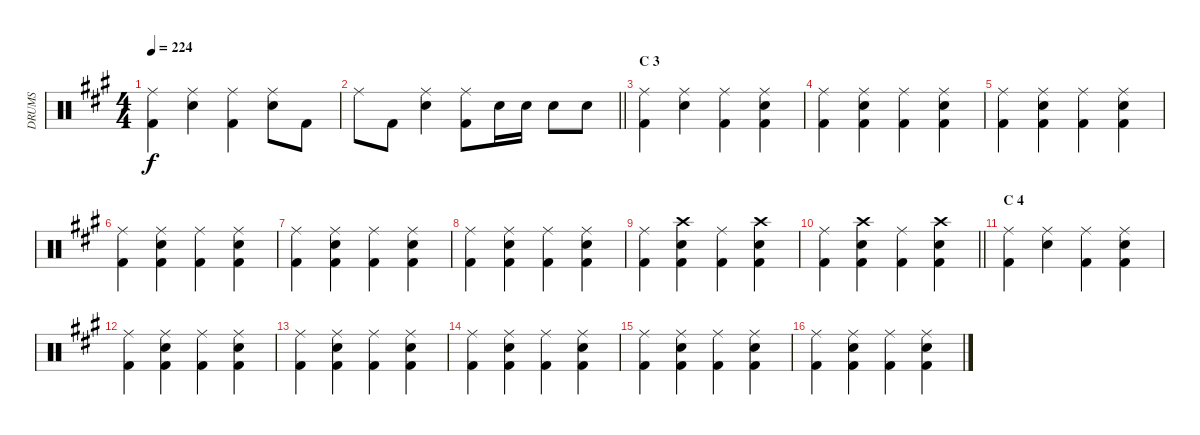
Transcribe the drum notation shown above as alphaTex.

\track ("DRUMS" "DRUMS") {instrument percussion}
\staff {score}
\articulation defaults
\ts (4 4)
\tempo 224
\clef neutral
\ks a
("Ride (middle)" "Kick (hit) 2").4{dy f} ("Ride (middle)" "Snare (hit) 2").4 ("Ride (middle)" "Kick (hit) 2").4 ("Ride (middle)" "Snare (hit) 2").8 "Kick (hit) 2".8 |
\barLineRight lightlight "Ride (middle)".8 "Kick (hit) 2".8
("Ride (middle)" "Snare (hit) 2").4 ("Ride (middle)" "Kick (hit) 2").8 "Snare (hit) 2".16 "Snare (hit) 2".16 "Snare (hit) 2".8 "Snare (hit) 2".8 |
\section ("" "C 3")
("Ride (middle)" "Kick (hit) 2").4 ("Ride (middle)" "Snare (hit) 2").4 ("Ride (middle)" "Kick (hit) 2").4 ("Ride (middle)" "Snare (hit) 2" "Kick (hit) 2").4 |
("Ride (middle)" "Kick (hit) 2").4 ("Ride (middle)" "Snare (hit) 2" "Kick (hit) 2").4 ("Ride (middle)" "Kick (hit) 2").4 ("Ride (middle)" "Snare (hit) 2" "Kick (hit) 2").4 |
("Ride (middle)" "Kick (hit) 2").4 ("Ride (middle)" "Snare (hit) 2" "Kick (hit) 2").4 ("Ride (middle)" "Kick (hit) 2").4 ("Ride (middle)" "Snare (hit) 2" "Kick (hit) 2").4 |
("Ride (middle)" "Kick (hit) 2").4 ("Ride (middle)" "Snare (hit) 2" "Kick (hit) 2").4 ("Ride (middle)" "Kick (hit) 2").4 ("Ride (middle)" "Snare (hit) 2" "Kick (hit) 2").4 |
("Ride (middle)" "Kick (hit) 2").4 ("Ride (middle)" "Snare (hit) 2" "Kick (hit) 2").4 ("Ride (middle)" "Kick (hit) 2").4 ("Ride (middle)" "Snare (hit) 2" "Kick (hit) 2").4 |
("Ride (middle)" "Kick (hit) 2").4 ("Ride (middle)" "Snare (hit) 2" "Kick (hit) 2").4 ("Ride (middle)" "Kick (hit) 2").4 ("Ride (middle)" "Snare (hit) 2" "Kick (hit) 2").4 |
("Ride (middle)" "Kick (hit) 2").4 ("Crash high (hit)" "Snare (hit) 2" "Kick (hit) 2").4 ("Ride (middle)" "Kick (hit) 2").4 ("Crash high (hit)" "Snare (hit) 2" "Kick (hit) 2").4 |
\barLineRight lightlight
("Ride (middle)" "Kick (hit) 2").4 ("Crash high (hit)" "Snare (hit) 2" "Kick (hit) 2").4 ("Ride (middle)" "Kick (hit) 2").4 ("Crash high (hit)" "Snare (hit) 2" "Kick (hit) 2").4 |
\section ("" "C 4")
("Ride (middle)" "Kick (hit) 2").4 ("Ride (middle)" "Snare (hit) 2").4 ("Ride (middle)" "Kick (hit) 2").4 ("Ride (middle)" "Snare (hit) 2" "Kick (hit) 2").4 |
("Ride (middle)" "Kick (hit) 2").4 ("Ride (middle)" "Snare (hit) 2" "Kick (hit) 2").4 ("Ride (middle)" "Kick (hit) 2").4 ("Ride (middle)" "Snare (hit) 2" "Kick (hit) 2").4 |
("Ride (middle)" "Kick (hit) 2").4 ("Ride (middle)" "Snare (hit) 2" "Kick (hit) 2").4 ("Ride (middle)" "Kick (hit) 2").4 ("Ride (middle)" "Snare (hit) 2" "Kick (hit) 2").4 |
("Ride (middle)" "Kick (hit) 2").4 ("Ride (middle)" "Snare (hit) 2" "Kick (hit) 2").4 ("Ride (middle)" "Kick (hit) 2").4 ("Ride (middle)" "Snare (hit) 2" "Kick (hit) 2").4 |
("Ride (middle)" "Kick (hit) 2").4 ("Ride (middle)" "Snare (hit) 2" "Kick (hit) 2").4 ("Ride (middle)" "Kick (hit) 2").4 ("Ride (middle)" "Snare (hit) 2" "Kick (hit) 2").4 |
("Ride (middle)" "Kick (hit) 2").4 ("Ride (middle)" "Snare (hit) 2" "Kick (hit) 2").4 ("Ride (middle)" "Kick (hit) 2").4 ("Ride (middle)" "Snare (hit) 2" "Kick (hit) 2").4
